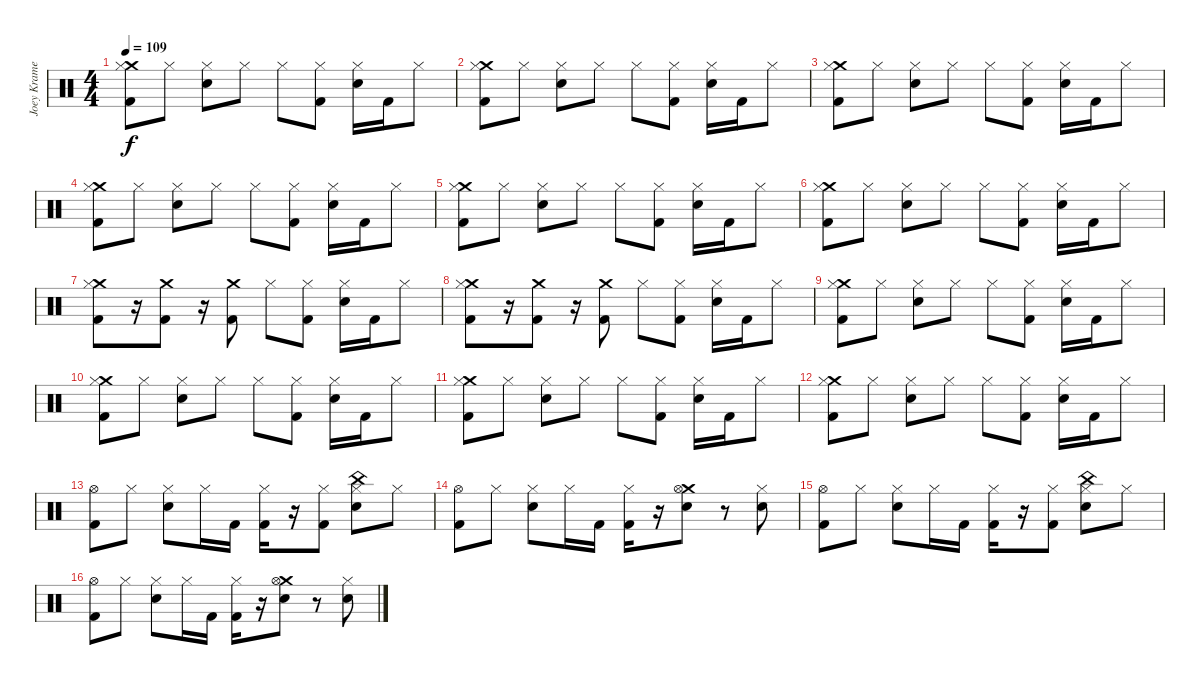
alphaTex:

\track ("Joey Kramer" "Joey Krame") {instrument percussion}
\staff {score}
\articulation defaults
\ts (4 4)
\tempo 109
\clef neutral
\ks c
("Crash medium (hit)" "Hi-Hat (closed)" "Kick (hit) 2").8{dy f} "Hi-Hat (closed)".8 ("Hi-Hat (closed)" "Snare (hit) 2").8 "Hi-Hat (closed)".8 "Hi-Hat (closed)".8 ("Hi-Hat (closed)" "Kick (hit) 2").8 ("Hi-Hat (closed)" "Snare (hit) 2").16 "Kick (hit) 2".16 "Hi-Hat (closed)".8 |
("Crash medium (hit)" "Hi-Hat (closed)" "Kick (hit) 2").8 "Hi-Hat (closed)".8 ("Hi-Hat (closed)" "Snare (hit) 2").8 "Hi-Hat (closed)".8 "Hi-Hat (closed)".8 ("Hi-Hat (closed)" "Kick (hit) 2").8 ("Hi-Hat (closed)" "Snare (hit) 2").16 "Kick (hit) 2".16 "Hi-Hat (closed)".8 |
("Crash medium (hit)" "Hi-Hat (closed)" "Kick (hit) 2").8 "Hi-Hat (closed)".8 ("Hi-Hat (closed)" "Snare (hit) 2").8 "Hi-Hat (closed)".8 "Hi-Hat (closed)".8 ("Hi-Hat (closed)" "Kick (hit) 2").8 ("Hi-Hat (closed)" "Snare (hit) 2").16 "Kick (hit) 2".16 "Hi-Hat (closed)".8 |
("Crash medium (hit)" "Hi-Hat (closed)" "Kick (hit) 2").8 "Hi-Hat (closed)".8 ("Hi-Hat (closed)" "Snare (hit) 2").8 "Hi-Hat (closed)".8 "Hi-Hat (closed)".8 ("Hi-Hat (closed)" "Kick (hit) 2").8 ("Hi-Hat (closed)" "Snare (hit) 2").16 "Kick (hit) 2".16 "Hi-Hat (closed)".8 |
("Crash medium (hit)" "Hi-Hat (closed)" "Kick (hit) 2").8 "Hi-Hat (closed)".8 ("Hi-Hat (closed)" "Snare (hit) 2").8 "Hi-Hat (closed)".8 "Hi-Hat (closed)".8 ("Hi-Hat (closed)" "Kick (hit) 2").8 ("Hi-Hat (closed)" "Snare (hit) 2").16 "Kick (hit) 2".16 "Hi-Hat (closed)".8 |
("Crash medium (hit)" "Hi-Hat (closed)" "Kick (hit) 2").8 "Hi-Hat (closed)".8 ("Hi-Hat (closed)" "Snare (hit) 2").8 "Hi-Hat (closed)".8 "Hi-Hat (closed)".8 ("Hi-Hat (closed)" "Kick (hit) 2").8 ("Hi-Hat (closed)" "Snare (hit) 2").16 "Kick (hit) 2".16 "Hi-Hat (closed)".8 |
("Crash medium (hit)" "Hi-Hat (closed)" "Kick (hit) 2").8 r.16 ("Crash medium (hit)" "Kick (hit) 2").8 r.16 ("Crash medium (hit)" "Kick (hit) 2").8 "Hi-Hat (closed)".8 ("Hi-Hat (closed)" "Kick (hit) 2").8 ("Hi-Hat (closed)" "Snare (hit) 2").16 "Kick (hit) 2".16 "Hi-Hat (closed)".8 |
("Crash medium (hit)" "Hi-Hat (closed)" "Kick (hit) 2").8 r.16 ("Crash medium (hit)" "Kick (hit) 2").8 r.16 ("Crash medium (hit)" "Kick (hit) 2").8 "Hi-Hat (closed)".8 ("Hi-Hat (closed)" "Kick (hit) 2").8 ("Hi-Hat (closed)" "Snare (hit) 2").16 "Kick (hit) 2".16 "Hi-Hat (closed)".8 |
("Crash medium (hit)" "Hi-Hat (closed)" "Kick (hit) 2").8 "Hi-Hat (closed)".8 ("Hi-Hat (closed)" "Snare (hit) 2").8 "Hi-Hat (closed)".8 "Hi-Hat (closed)".8 ("Hi-Hat (closed)" "Kick (hit) 2").8 ("Hi-Hat (closed)" "Snare (hit) 2").16 "Kick (hit) 2".16 "Hi-Hat (closed)".8 |
("Crash medium (hit)" "Hi-Hat (closed)" "Kick (hit) 2").8 "Hi-Hat (closed)".8 ("Hi-Hat (closed)" "Snare (hit) 2").8 "Hi-Hat (closed)".8 "Hi-Hat (closed)".8 ("Hi-Hat (closed)" "Kick (hit) 2").8 ("Hi-Hat (closed)" "Snare (hit) 2").16 "Kick (hit) 2".16 "Hi-Hat (closed)".8 |
("Crash medium (hit)" "Hi-Hat (closed)" "Kick (hit) 2").8 "Hi-Hat (closed)".8 ("Hi-Hat (closed)" "Snare (hit) 2").8 "Hi-Hat (closed)".8 "Hi-Hat (closed)".8 ("Hi-Hat (closed)" "Kick (hit) 2").8 ("Hi-Hat (closed)" "Snare (hit) 2").16 "Kick (hit) 2".16 "Hi-Hat (closed)".8 |
("Crash medium (hit)" "Hi-Hat (closed)" "Kick (hit) 2").8 "Hi-Hat (closed)".8 ("Hi-Hat (closed)" "Snare (hit) 2").8 "Hi-Hat (closed)".8 "Hi-Hat (closed)".8 ("Hi-Hat (closed)" "Kick (hit) 2").8 ("Hi-Hat (closed)" "Snare (hit) 2").16 "Kick (hit) 2".16 "Hi-Hat (closed)".8 |
("Hi-Hat (open)" "Kick (hit) 2").8 "Hi-Hat (closed)".8 ("Hi-Hat (closed)" "Snare (hit) 2").8 "Hi-Hat (closed)".16 "Kick (hit) 2".16 ("Hi-Hat (closed)" "Kick (hit) 2").16 r.16 ("Hi-Hat (closed)" "Kick (hit) 2").8 ("China (hit)" "Hi-Hat (closed)" "Snare (hit) 2").8 "Hi-Hat (closed)".8 |
("Hi-Hat (open)" "Kick (hit) 2").8 "Hi-Hat (closed)".8 ("Hi-Hat (closed)" "Snare (hit) 2").8 "Hi-Hat (closed)".16 "Kick (hit) 2".16 ("Hi-Hat (closed)" "Kick (hit) 2").16 r.16 ("Crash medium (hit)" "Hi-Hat (open)" "Snare (hit) 2").8 r.8 ("Snare (hit) 2" "Hi-Hat (closed)").8 |
("Hi-Hat (open)" "Kick (hit) 2").8 "Hi-Hat (closed)".8 ("Hi-Hat (closed)" "Snare (hit) 2").8 "Hi-Hat (closed)".16 "Kick (hit) 2".16 ("Hi-Hat (closed)" "Kick (hit) 2").16 r.16 ("Hi-Hat (closed)" "Kick (hit) 2").8 ("China (hit)" "Hi-Hat (closed)" "Snare (hit) 2").8 "Hi-Hat (closed)".8 |
("Hi-Hat (open)" "Kick (hit) 2").8 "Hi-Hat (closed)".8 ("Hi-Hat (closed)" "Snare (hit) 2").8 "Hi-Hat (closed)".16 "Kick (hit) 2".16 ("Hi-Hat (closed)" "Kick (hit) 2").16 r.16 ("Crash medium (hit)" "Hi-Hat (open)" "Snare (hit) 2").8 r.8 ("Snare (hit) 2" "Hi-Hat (closed)").8
